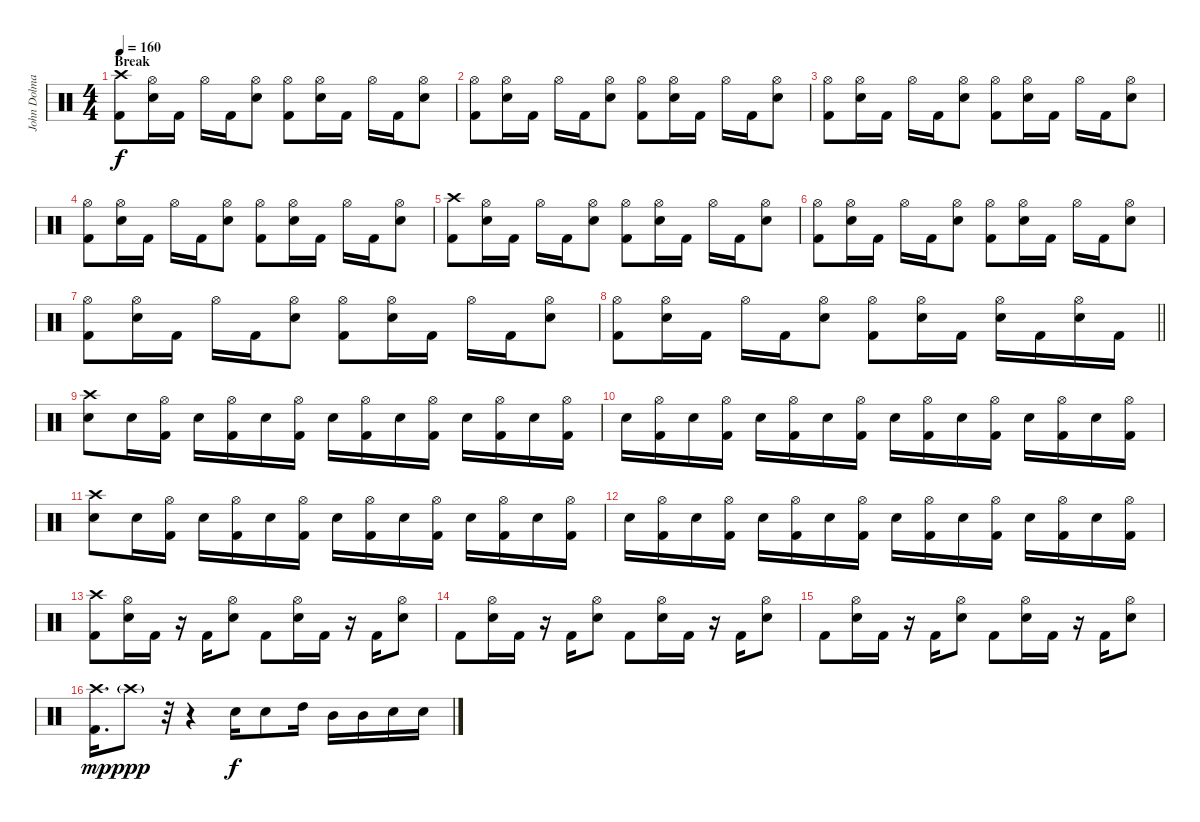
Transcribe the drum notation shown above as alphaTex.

\track ("John Dolmayan" "John Dolma") {instrument percussion}
\staff {score}
\articulation defaults
\ts (4 4)
\section ("" "Break")
\tempo 160
\clef neutral
\ks c
("Crash high (hit)" "Kick (hit) 2").8{dy f} ("Hi-Hat (open)" "Electric Snare (hit)").16 "Kick (hit) 2".16 "Hi-Hat (open)".16 "Kick (hit) 2".16 ("Hi-Hat (open)" "Electric Snare (hit)").8 ("Hi-Hat (open)" "Kick (hit) 2").8 ("Hi-Hat (open)" "Electric Snare (hit)").16 "Kick (hit) 2".16 "Hi-Hat (open)".16 "Kick (hit) 2".16 ("Hi-Hat (open)" "Electric Snare (hit)").8 |
("Hi-Hat (open)" "Kick (hit) 2").8 ("Hi-Hat (open)" "Electric Snare (hit)").16 "Kick (hit) 2".16 "Hi-Hat (open)".16 "Kick (hit) 2".16 ("Hi-Hat (open)" "Electric Snare (hit)").8 ("Hi-Hat (open)" "Kick (hit) 2").8 ("Hi-Hat (open)" "Electric Snare (hit)").16 "Kick (hit) 2".16 "Hi-Hat (open)".16 "Kick (hit) 2".16 ("Hi-Hat (open)" "Electric Snare (hit)").8 |
("Hi-Hat (open)" "Kick (hit) 2").8 ("Hi-Hat (open)" "Electric Snare (hit)").16 "Kick (hit) 2".16 "Hi-Hat (open)".16 "Kick (hit) 2".16 ("Hi-Hat (open)" "Electric Snare (hit)").8 ("Hi-Hat (open)" "Kick (hit) 2").8 ("Hi-Hat (open)" "Electric Snare (hit)").16 "Kick (hit) 2".16 "Hi-Hat (open)".16 "Kick (hit) 2".16 ("Hi-Hat (open)" "Electric Snare (hit)").8 |
("Hi-Hat (open)" "Kick (hit) 2").8 ("Hi-Hat (open)" "Electric Snare (hit)").16 "Kick (hit) 2".16 "Hi-Hat (open)".16 "Kick (hit) 2".16 ("Hi-Hat (open)" "Electric Snare (hit)").8 ("Hi-Hat (open)" "Kick (hit) 2").8 ("Hi-Hat (open)" "Electric Snare (hit)").16 "Kick (hit) 2".16 "Hi-Hat (open)".16 "Kick (hit) 2".16 ("Hi-Hat (open)" "Electric Snare (hit)").8 |
("Crash high (hit)" "Kick (hit) 2").8 ("Hi-Hat (open)" "Electric Snare (hit)").16 "Kick (hit) 2".16 "Hi-Hat (open)".16 "Kick (hit) 2".16 ("Hi-Hat (open)" "Electric Snare (hit)").8 ("Hi-Hat (open)" "Kick (hit) 2").8 ("Hi-Hat (open)" "Electric Snare (hit)").16 "Kick (hit) 2".16 "Hi-Hat (open)".16 "Kick (hit) 2".16 ("Hi-Hat (open)" "Electric Snare (hit)").8 |
("Hi-Hat (open)" "Kick (hit) 2").8 ("Hi-Hat (open)" "Electric Snare (hit)").16 "Kick (hit) 2".16 "Hi-Hat (open)".16 "Kick (hit) 2".16 ("Hi-Hat (open)" "Electric Snare (hit)").8 ("Hi-Hat (open)" "Kick (hit) 2").8 ("Hi-Hat (open)" "Electric Snare (hit)").16 "Kick (hit) 2".16 "Hi-Hat (open)".16 "Kick (hit) 2".16 ("Hi-Hat (open)" "Electric Snare (hit)").8 |
("Hi-Hat (open)" "Kick (hit) 2").8 ("Hi-Hat (open)" "Electric Snare (hit)").16 "Kick (hit) 2".16 "Hi-Hat (open)".16 "Kick (hit) 2".16 ("Hi-Hat (open)" "Electric Snare (hit)").8 ("Hi-Hat (open)" "Kick (hit) 2").8 ("Hi-Hat (open)" "Electric Snare (hit)").16 "Kick (hit) 2".16 "Hi-Hat (open)".16 "Kick (hit) 2".16 ("Hi-Hat (open)" "Electric Snare (hit)").8 |
\barLineRight lightlight
("Hi-Hat (open)" "Kick (hit) 2").8 ("Hi-Hat (open)" "Electric Snare (hit)").16 "Kick (hit) 2".16 "Hi-Hat (open)".16 "Kick (hit) 2".16 ("Hi-Hat (open)" "Electric Snare (hit)").8 ("Hi-Hat (open)" "Kick (hit) 2").8 ("Hi-Hat (open)" "Electric Snare (hit)").16 "Kick (hit) 2".16 ("Hi-Hat (open)" "Electric Snare (hit)").16 "Kick (hit) 2".16 ("Hi-Hat (open)" "Electric Snare (hit)").16 "Kick (hit) 2".16 |
("Crash high (hit)" "Electric Snare (hit)").8 "Electric Snare (hit)".16 ("Hi-Hat (open)" "Kick (hit) 2").16 "Electric Snare (hit)".16 ("Hi-Hat (open)" "Kick (hit) 2").16 "Electric Snare (hit)".16 ("Hi-Hat (open)" "Kick (hit) 2").16 "Electric Snare (hit)".16 ("Hi-Hat (open)" "Kick (hit) 2").16 "Electric Snare (hit)".16 ("Hi-Hat (open)" "Kick (hit) 2").16 "Electric Snare (hit)".16 ("Hi-Hat (open)" "Kick (hit) 2").16 "Electric Snare (hit)".16 ("Hi-Hat (open)" "Kick (hit) 2").16 |
"Electric Snare (hit)".16 ("Hi-Hat (open)" "Kick (hit) 2").16 "Electric Snare (hit)".16 ("Hi-Hat (open)" "Kick (hit) 2").16 "Electric Snare (hit)".16 ("Hi-Hat (open)" "Kick (hit) 2").16 "Electric Snare (hit)".16 ("Hi-Hat (open)" "Kick (hit) 2").16 "Electric Snare (hit)".16 ("Hi-Hat (open)" "Kick (hit) 2").16 "Electric Snare (hit)".16 ("Hi-Hat (open)" "Kick (hit) 2").16 "Electric Snare (hit)".16 ("Hi-Hat (open)" "Kick (hit) 2").16 "Electric Snare (hit)".16 ("Hi-Hat (open)" "Kick (hit) 2").16 |
("Crash high (hit)" "Electric Snare (hit)").8 "Electric Snare (hit)".16 ("Hi-Hat (open)" "Kick (hit) 2").16 "Electric Snare (hit)".16 ("Hi-Hat (open)" "Kick (hit) 2").16 "Electric Snare (hit)".16 ("Hi-Hat (open)" "Kick (hit) 2").16 "Electric Snare (hit)".16 ("Hi-Hat (open)" "Kick (hit) 2").16 "Electric Snare (hit)".16 ("Hi-Hat (open)" "Kick (hit) 2").16 "Electric Snare (hit)".16 ("Hi-Hat (open)" "Kick (hit) 2").16 "Electric Snare (hit)".16 ("Hi-Hat (open)" "Kick (hit) 2").16 |
"Electric Snare (hit)".16 ("Hi-Hat (open)" "Kick (hit) 2").16 "Electric Snare (hit)".16 ("Hi-Hat (open)" "Kick (hit) 2").16 "Electric Snare (hit)".16 ("Hi-Hat (open)" "Kick (hit) 2").16 "Electric Snare (hit)".16 ("Hi-Hat (open)" "Kick (hit) 2").16 "Electric Snare (hit)".16 ("Hi-Hat (open)" "Kick (hit) 2").16 "Electric Snare (hit)".16 ("Hi-Hat (open)" "Kick (hit) 2").16 "Electric Snare (hit)".16 ("Hi-Hat (open)" "Kick (hit) 2").16 "Electric Snare (hit)".16 ("Hi-Hat (open)" "Kick (hit) 2").16 |
("Crash high (hit)" "Kick (hit) 2").8 ("Hi-Hat (open)" "Electric Snare (hit)").16 "Kick (hit) 2".16 r.16 "Kick (hit) 2".16 ("Hi-Hat (open)" "Electric Snare (hit)").8 "Kick (hit) 2".8 ("Hi-Hat (open)" "Electric Snare (hit)").16 "Kick (hit) 2".16 r.16 "Kick (hit) 2".16 ("Hi-Hat (open)" "Electric Snare (hit)").8 |
"Kick (hit) 2".8 ("Hi-Hat (open)" "Electric Snare (hit)").16 "Kick (hit) 2".16 r.16 "Kick (hit) 2".16 ("Hi-Hat (open)" "Electric Snare (hit)").8 "Kick (hit) 2".8 ("Hi-Hat (open)" "Electric Snare (hit)").16 "Kick (hit) 2".16 r.16 "Kick (hit) 2".16 ("Hi-Hat (open)" "Electric Snare (hit)").8 |
"Kick (hit) 2".8 ("Hi-Hat (open)" "Electric Snare (hit)").16 "Kick (hit) 2".16 r.16 "Kick (hit) 2".16 ("Hi-Hat (open)" "Electric Snare (hit)").8 "Kick (hit) 2".8 ("Hi-Hat (open)" "Electric Snare (hit)").16 "Kick (hit) 2".16 r.16 "Kick (hit) 2".16 ("Hi-Hat (open)" "Electric Snare (hit)").8 |
("Crash high (hit)" "Kick (hit) 2").16{d dy mp} "Crash high (hit)"{g}.8{dy ppp} r.32 r.4 "Electric Snare (hit)".16{dy f} "Electric Snare (hit)".8 "High Tom (hit)".16 "Mid Tom (hit)".16 "Mid Tom (hit)".16 "Electric Snare (hit)".16 "Electric Snare (hit)".16
